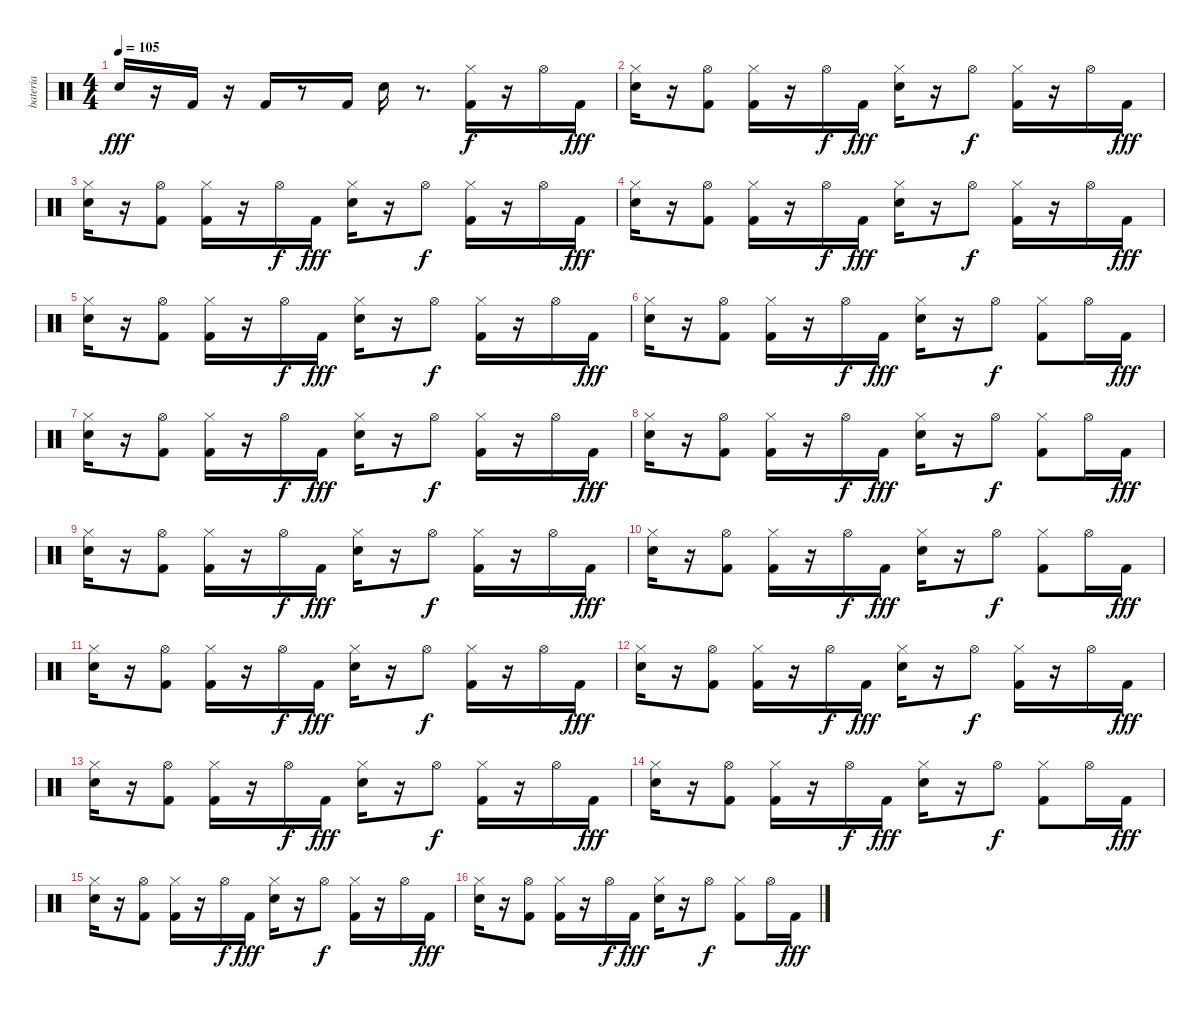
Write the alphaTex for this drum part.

\track ("bateria" "bateria") {instrument percussion}
\staff {score}
\articulation defaults
\ts (4 4)
\tempo 105
\clef neutral
\ks c "Snare (hit) 2".16{dy fff}
r.16 "Kick (hit) 2".16 r.16 "Kick (hit) 2".16 r.8 "Kick (hit) 2".16 "Snare (hit) 2".16 r.8{d} ("Hi-Hat (closed)" "Kick (hit) 2").16{dy f} r.16 "Hi-Hat (open)".16 "Kick (hit) 2".16{dy fff} |
("Snare (hit) 2" "Hi-Hat (closed)").16 r.16 ("Kick (hit) 2" "Hi-Hat (open)").8 ("Kick (hit) 2" "Hi-Hat (closed)").16 r.16 "Hi-Hat (open)".16{dy f} "Kick (hit) 2".16{dy fff} ("Snare (hit) 2" "Hi-Hat (closed)").16 r.16 "Hi-Hat (open)".8{dy f} ("Hi-Hat (closed)" "Kick (hit) 2").16 r.16 "Hi-Hat (open)".16 "Kick (hit) 2".16{dy fff} |
("Snare (hit) 2" "Hi-Hat (closed)").16 r.16 ("Kick (hit) 2" "Hi-Hat (open)").8 ("Kick (hit) 2" "Hi-Hat (closed)").16 r.16 "Hi-Hat (open)".16{dy f} "Kick (hit) 2".16{dy fff} ("Snare (hit) 2" "Hi-Hat (closed)").16 r.16 "Hi-Hat (open)".8{dy f} ("Hi-Hat (closed)" "Kick (hit) 2").16 r.16 "Hi-Hat (open)".16 "Kick (hit) 2".16{dy fff} |
("Snare (hit) 2" "Hi-Hat (closed)").16 r.16 ("Kick (hit) 2" "Hi-Hat (open)").8 ("Kick (hit) 2" "Hi-Hat (closed)").16 r.16 "Hi-Hat (open)".16{dy f} "Kick (hit) 2".16{dy fff} ("Snare (hit) 2" "Hi-Hat (closed)").16 r.16 "Hi-Hat (open)".8{dy f} ("Hi-Hat (closed)" "Kick (hit) 2").16 r.16 "Hi-Hat (open)".16 "Kick (hit) 2".16{dy fff} |
("Snare (hit) 2" "Hi-Hat (closed)").16 r.16 ("Kick (hit) 2" "Hi-Hat (open)").8 ("Kick (hit) 2" "Hi-Hat (closed)").16 r.16 "Hi-Hat (open)".16{dy f} "Kick (hit) 2".16{dy fff} ("Snare (hit) 2" "Hi-Hat (closed)").16 r.16 "Hi-Hat (open)".8{dy f} ("Hi-Hat (closed)" "Kick (hit) 2").16 r.16 "Hi-Hat (open)".16 "Kick (hit) 2".16{dy fff} |
("Snare (hit) 2" "Hi-Hat (closed)").16 r.16 ("Kick (hit) 2" "Hi-Hat (open)").8 ("Kick (hit) 2" "Hi-Hat (closed)").16 r.16 "Hi-Hat (open)".16{dy f} "Kick (hit) 2".16{dy fff} ("Snare (hit) 2" "Hi-Hat (closed)").16 r.16 "Hi-Hat (open)".8{dy f} ("Hi-Hat (closed)" "Kick (hit) 2").8 "Hi-Hat (open)".16 "Kick (hit) 2".16{dy fff} |
("Snare (hit) 2" "Hi-Hat (closed)").16 r.16 ("Kick (hit) 2" "Hi-Hat (open)").8 ("Kick (hit) 2" "Hi-Hat (closed)").16 r.16 "Hi-Hat (open)".16{dy f} "Kick (hit) 2".16{dy fff} ("Snare (hit) 2" "Hi-Hat (closed)").16 r.16 "Hi-Hat (open)".8{dy f} ("Hi-Hat (closed)" "Kick (hit) 2").16 r.16 "Hi-Hat (open)".16 "Kick (hit) 2".16{dy fff} |
("Snare (hit) 2" "Hi-Hat (closed)").16 r.16 ("Kick (hit) 2" "Hi-Hat (open)").8 ("Kick (hit) 2" "Hi-Hat (closed)").16 r.16 "Hi-Hat (open)".16{dy f} "Kick (hit) 2".16{dy fff} ("Snare (hit) 2" "Hi-Hat (closed)").16 r.16 "Hi-Hat (open)".8{dy f} ("Hi-Hat (closed)" "Kick (hit) 2").8 "Hi-Hat (open)".16 "Kick (hit) 2".16{dy fff} |
("Snare (hit) 2" "Hi-Hat (closed)").16 r.16 ("Kick (hit) 2" "Hi-Hat (open)").8 ("Kick (hit) 2" "Hi-Hat (closed)").16 r.16 "Hi-Hat (open)".16{dy f} "Kick (hit) 2".16{dy fff} ("Snare (hit) 2" "Hi-Hat (closed)").16 r.16 "Hi-Hat (open)".8{dy f} ("Hi-Hat (closed)" "Kick (hit) 2").16 r.16 "Hi-Hat (open)".16 "Kick (hit) 2".16{dy fff} |
("Snare (hit) 2" "Hi-Hat (closed)").16 r.16 ("Kick (hit) 2" "Hi-Hat (open)").8 ("Kick (hit) 2" "Hi-Hat (closed)").16 r.16 "Hi-Hat (open)".16{dy f} "Kick (hit) 2".16{dy fff} ("Snare (hit) 2" "Hi-Hat (closed)").16 r.16 "Hi-Hat (open)".8{dy f} ("Hi-Hat (closed)" "Kick (hit) 2").8 "Hi-Hat (open)".16 "Kick (hit) 2".16{dy fff} |
("Snare (hit) 2" "Hi-Hat (closed)").16 r.16 ("Kick (hit) 2" "Hi-Hat (open)").8 ("Kick (hit) 2" "Hi-Hat (closed)").16 r.16 "Hi-Hat (open)".16{dy f} "Kick (hit) 2".16{dy fff} ("Snare (hit) 2" "Hi-Hat (closed)").16 r.16 "Hi-Hat (open)".8{dy f} ("Hi-Hat (closed)" "Kick (hit) 2").16 r.16 "Hi-Hat (open)".16 "Kick (hit) 2".16{dy fff} |
("Snare (hit) 2" "Hi-Hat (closed)").16 r.16 ("Kick (hit) 2" "Hi-Hat (open)").8 ("Kick (hit) 2" "Hi-Hat (closed)").16 r.16 "Hi-Hat (open)".16{dy f} "Kick (hit) 2".16{dy fff} ("Snare (hit) 2" "Hi-Hat (closed)").16 r.16 "Hi-Hat (open)".8{dy f} ("Hi-Hat (closed)" "Kick (hit) 2").16 r.16 "Hi-Hat (open)".16 "Kick (hit) 2".16{dy fff} |
("Snare (hit) 2" "Hi-Hat (closed)").16 r.16 ("Kick (hit) 2" "Hi-Hat (open)").8 ("Kick (hit) 2" "Hi-Hat (closed)").16 r.16 "Hi-Hat (open)".16{dy f} "Kick (hit) 2".16{dy fff} ("Snare (hit) 2" "Hi-Hat (closed)").16 r.16 "Hi-Hat (open)".8{dy f} ("Hi-Hat (closed)" "Kick (hit) 2").16 r.16 "Hi-Hat (open)".16 "Kick (hit) 2".16{dy fff} |
("Snare (hit) 2" "Hi-Hat (closed)").16 r.16 ("Kick (hit) 2" "Hi-Hat (open)").8 ("Kick (hit) 2" "Hi-Hat (closed)").16 r.16 "Hi-Hat (open)".16{dy f} "Kick (hit) 2".16{dy fff} ("Snare (hit) 2" "Hi-Hat (closed)").16 r.16 "Hi-Hat (open)".8{dy f} ("Hi-Hat (closed)" "Kick (hit) 2").8 "Hi-Hat (open)".16 "Kick (hit) 2".16{dy fff} |
("Snare (hit) 2" "Hi-Hat (closed)").16 r.16 ("Kick (hit) 2" "Hi-Hat (open)").8 ("Kick (hit) 2" "Hi-Hat (closed)").16 r.16 "Hi-Hat (open)".16{dy f} "Kick (hit) 2".16{dy fff} ("Snare (hit) 2" "Hi-Hat (closed)").16 r.16 "Hi-Hat (open)".8{dy f} ("Hi-Hat (closed)" "Kick (hit) 2").16 r.16 "Hi-Hat (open)".16 "Kick (hit) 2".16{dy fff} |
("Snare (hit) 2" "Hi-Hat (closed)").16 r.16 ("Kick (hit) 2" "Hi-Hat (open)").8 ("Kick (hit) 2" "Hi-Hat (closed)").16 r.16 "Hi-Hat (open)".16{dy f} "Kick (hit) 2".16{dy fff} ("Snare (hit) 2" "Hi-Hat (closed)").16 r.16 "Hi-Hat (open)".8{dy f} ("Hi-Hat (closed)" "Kick (hit) 2").8 "Hi-Hat (open)".16 "Kick (hit) 2".16{dy fff}
